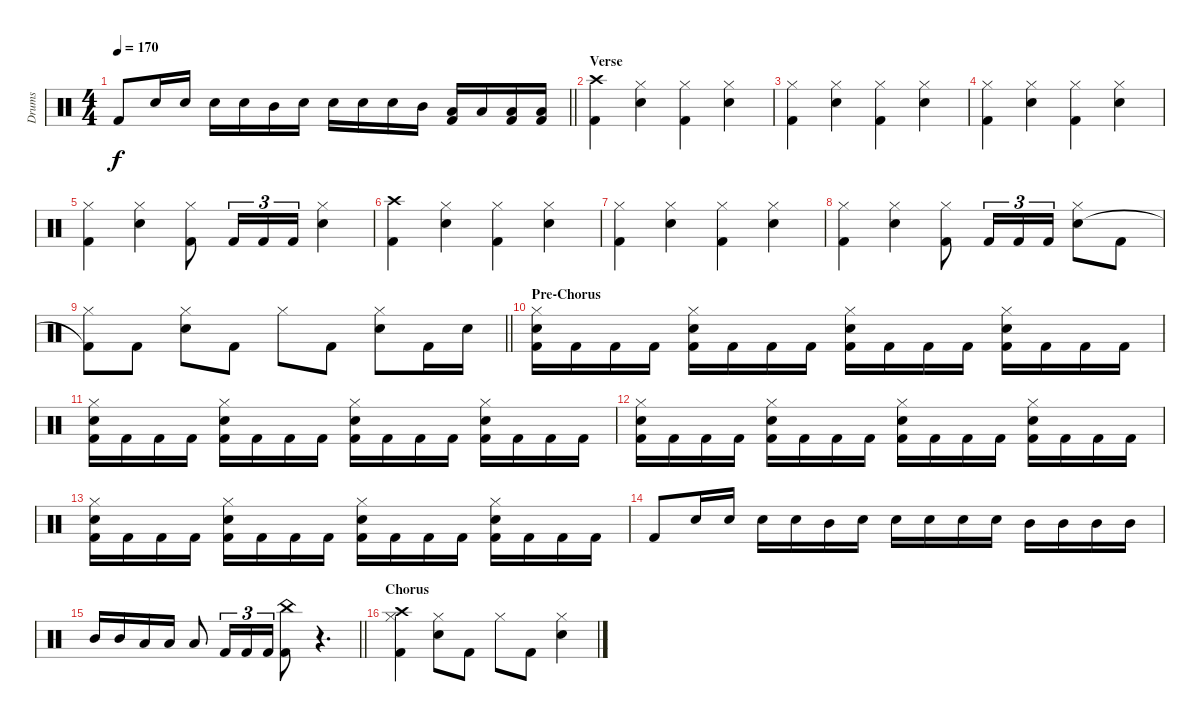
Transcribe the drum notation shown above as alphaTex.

\track ("Drums" "Drums") {instrument percussion}
\staff {score}
\articulation defaults
\ts (4 4)
\tempo 170
\clef neutral
\barLineRight lightlight
\ks c "Kick (hit) 2".8{dy f} "Snare (hit) 2".16 "Snare (hit) 2".16 "Snare (hit) 2".16 "Snare (hit) 2".16 "Mid Tom (hit)".16 "Snare (hit) 2".16 "Snare (hit) 2".16 "Snare (hit) 2".16 "Snare (hit) 2".16 "Mid Tom (hit)".16
("Low Tom (hit)" "Kick (hit) 2").16 "Low Tom (hit)".16 ("Low Tom (hit)" "Kick (hit) 2").16 ("Low Tom (hit)" "Kick (hit) 2").16 |
\section ("" "Verse")
("Crash high (hit)" "Kick (hit) 2").4 ("Hi-Hat (closed)" "Snare (hit) 2").4 ("Hi-Hat (closed)" "Kick (hit) 2").4 ("Hi-Hat (closed)" "Snare (hit) 2").4 |
("Hi-Hat (closed)" "Kick (hit) 2").4 ("Hi-Hat (closed)" "Snare (hit) 2").4 ("Hi-Hat (closed)" "Kick (hit) 2").4 ("Hi-Hat (closed)" "Snare (hit) 2").4 |
("Hi-Hat (closed)" "Kick (hit) 2").4 ("Hi-Hat (closed)" "Snare (hit) 2").4 ("Hi-Hat (closed)" "Kick (hit) 2").4 ("Hi-Hat (closed)" "Snare (hit) 2").4 |
("Hi-Hat (closed)" "Kick (hit) 2").4 ("Hi-Hat (closed)" "Snare (hit) 2").4 ("Hi-Hat (closed)" "Kick (hit) 2").8 "Kick (hit) 2".16{tu (3 2)} "Kick (hit) 2".16{tu (3 2)} "Kick (hit) 2".16{tu (3 2)} ("Hi-Hat (closed)" "Snare (hit) 2").4 |
("Crash high (hit)" "Kick (hit) 2").4 ("Hi-Hat (closed)" "Snare (hit) 2").4 ("Hi-Hat (closed)" "Kick (hit) 2").4 ("Hi-Hat (closed)" "Snare (hit) 2").4 |
("Hi-Hat (closed)" "Kick (hit) 2").4 ("Hi-Hat (closed)" "Snare (hit) 2").4 ("Hi-Hat (closed)" "Kick (hit) 2").4 ("Hi-Hat (closed)" "Snare (hit) 2").4 |
("Hi-Hat (closed)" "Kick (hit) 2").4 ("Hi-Hat (closed)" "Snare (hit) 2").4 ("Hi-Hat (closed)" "Kick (hit) 2").8 "Kick (hit) 2".16{tu (3 2)} "Kick (hit) 2".16{tu (3 2)} "Kick (hit) 2".16{tu (3 2)} ("Hi-Hat (closed)" "Snare (hit) 2").8 "Kick (hit) 2".8 |
\barLineRight lightlight
("Hi-Hat (closed)" "Kick (hit) 2"{t}).8 "Kick (hit) 2".8 ("Hi-Hat (closed)" "Snare (hit) 2").8 "Kick (hit) 2".8 "Hi-Hat (closed)".8 "Kick (hit) 2".8 ("Hi-Hat (closed)" "Snare (hit) 2").8 "Kick (hit) 2".16 "Snare (hit) 2".16 |
\section ("" "Pre-Chorus")
("Hi-Hat (closed)" "Snare (hit) 2" "Kick (hit) 2").16 "Kick (hit) 2".16 "Kick (hit) 2".16 "Kick (hit) 2".16 ("Hi-Hat (closed)" "Snare (hit) 2" "Kick (hit) 2").16 "Kick (hit) 2".16 "Kick (hit) 2".16 "Kick (hit) 2".16 ("Hi-Hat (closed)" "Snare (hit) 2" "Kick (hit) 2").16 "Kick (hit) 2".16 "Kick (hit) 2".16 "Kick (hit) 2".16 ("Hi-Hat (closed)" "Snare (hit) 2" "Kick (hit) 2").16 "Kick (hit) 2".16 "Kick (hit) 2".16 "Kick (hit) 2".16 |
("Hi-Hat (closed)" "Snare (hit) 2" "Kick (hit) 2").16 "Kick (hit) 2".16 "Kick (hit) 2".16 "Kick (hit) 2".16 ("Hi-Hat (closed)" "Snare (hit) 2" "Kick (hit) 2").16 "Kick (hit) 2".16 "Kick (hit) 2".16 "Kick (hit) 2".16 ("Hi-Hat (closed)" "Snare (hit) 2" "Kick (hit) 2").16 "Kick (hit) 2".16 "Kick (hit) 2".16 "Kick (hit) 2".16 ("Hi-Hat (closed)" "Snare (hit) 2" "Kick (hit) 2").16 "Kick (hit) 2".16 "Kick (hit) 2".16 "Kick (hit) 2".16 |
("Hi-Hat (closed)" "Snare (hit) 2" "Kick (hit) 2").16 "Kick (hit) 2".16 "Kick (hit) 2".16 "Kick (hit) 2".16 ("Hi-Hat (closed)" "Snare (hit) 2" "Kick (hit) 2").16 "Kick (hit) 2".16 "Kick (hit) 2".16 "Kick (hit) 2".16 ("Hi-Hat (closed)" "Snare (hit) 2" "Kick (hit) 2").16 "Kick (hit) 2".16 "Kick (hit) 2".16 "Kick (hit) 2".16 ("Hi-Hat (closed)" "Snare (hit) 2" "Kick (hit) 2").16 "Kick (hit) 2".16 "Kick (hit) 2".16 "Kick (hit) 2".16 |
("Hi-Hat (closed)" "Snare (hit) 2" "Kick (hit) 2").16 "Kick (hit) 2".16 "Kick (hit) 2".16 "Kick (hit) 2".16 ("Hi-Hat (closed)" "Snare (hit) 2" "Kick (hit) 2").16 "Kick (hit) 2".16 "Kick (hit) 2".16 "Kick (hit) 2".16 ("Hi-Hat (closed)" "Snare (hit) 2" "Kick (hit) 2").16 "Kick (hit) 2".16 "Kick (hit) 2".16 "Kick (hit) 2".16 ("Hi-Hat (closed)" "Snare (hit) 2" "Kick (hit) 2").16 "Kick (hit) 2".16 "Kick (hit) 2".16 "Kick (hit) 2".16 |
"Kick (hit) 2".8 "Snare (hit) 2".16 "Snare (hit) 2".16 "Snare (hit) 2".16 "Snare (hit) 2".16 "Mid Tom (hit)".16 "Snare (hit) 2".16 "Snare (hit) 2".16 "Snare (hit) 2".16 "Snare (hit) 2".16 "Snare (hit) 2".16 "Mid Tom (hit)".16 "Mid Tom (hit)".16 "Mid Tom (hit)".16 "Mid Tom (hit)".16 |
\barLineRight lightlight "Mid Tom (hit)".16 "Mid Tom (hit)".16 "Low Tom (hit)".16 "Low Tom (hit)".16 "Low Tom (hit)".8 "Kick (hit) 2".16{tu (3 2)} "Kick (hit) 2".16{tu (3 2)} "Kick (hit) 2".16{tu (3 2)}
("China (hit)" "Kick (hit) 2").8 r.4{d} |
\section ("" "Chorus")
("Crash high (hit)" "Hi-Hat (closed)" "Kick (hit) 2").4 ("Hi-Hat (closed)" "Snare (hit) 2").8 "Kick (hit) 2".8 "Hi-Hat (closed)".8 "Kick (hit) 2".8 ("Hi-Hat (closed)" "Snare (hit) 2").4
